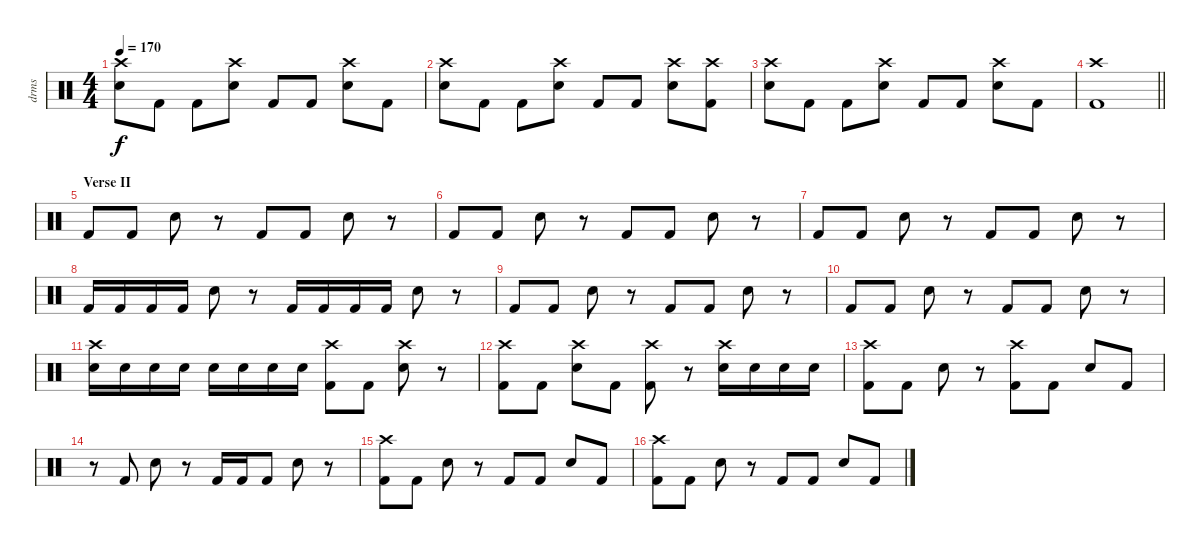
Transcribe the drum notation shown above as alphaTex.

\track ("drms" "drms") {instrument percussion}
\staff {score}
\articulation defaults
\ts (4 4)
\tempo 170
\clef neutral
\ks c
("Crash high (hit)" "Snare (hit) 2").8{dy f} "Kick (hit) 2".8 "Kick (hit) 2".8 ("Crash high (hit)" "Snare (hit) 2").8 "Kick (hit) 2".8 "Kick (hit) 2".8 ("Crash high (hit)" "Snare (hit) 2").8 "Kick (hit) 2".8 |
("Crash high (hit)" "Snare (hit) 2").8 "Kick (hit) 2".8 "Kick (hit) 2".8 ("Crash high (hit)" "Snare (hit) 2").8 "Kick (hit) 2".8 "Kick (hit) 2".8 ("Crash high (hit)" "Snare (hit) 2").8 ("Crash high (hit)" "Kick (hit) 2").8 |
("Crash high (hit)" "Snare (hit) 2").8 "Kick (hit) 2".8 "Kick (hit) 2".8 ("Crash high (hit)" "Snare (hit) 2").8 "Kick (hit) 2".8 "Kick (hit) 2".8 ("Crash high (hit)" "Snare (hit) 2").8 "Kick (hit) 2".8 |
\barLineRight lightlight
("Crash high (hit)" "Kick (hit) 2").1 |
\section ("" "Verse II")
"Kick (hit) 2".8 "Kick (hit) 2".8 "Snare (hit) 2".8 r.8 "Kick (hit) 2".8 "Kick (hit) 2".8 "Snare (hit) 2".8 r.8 |
"Kick (hit) 2".8 "Kick (hit) 2".8 "Snare (hit) 2".8 r.8 "Kick (hit) 2".8 "Kick (hit) 2".8 "Snare (hit) 2".8 r.8 |
"Kick (hit) 2".8 "Kick (hit) 2".8 "Snare (hit) 2".8 r.8 "Kick (hit) 2".8 "Kick (hit) 2".8 "Snare (hit) 2".8 r.8 |
"Kick (hit) 2".16 "Kick (hit) 2".16 "Kick (hit) 2".16 "Kick (hit) 2".16 "Snare (hit) 2".8 r.8 "Kick (hit) 2".16 "Kick (hit) 2".16 "Kick (hit) 2".16 "Kick (hit) 2".16 "Snare (hit) 2".8 r.8 |
"Kick (hit) 2".8 "Kick (hit) 2".8 "Snare (hit) 2".8 r.8 "Kick (hit) 2".8 "Kick (hit) 2".8 "Snare (hit) 2".8 r.8 |
"Kick (hit) 2".8 "Kick (hit) 2".8 "Snare (hit) 2".8 r.8 "Kick (hit) 2".8 "Kick (hit) 2".8 "Snare (hit) 2".8 r.8 |
("Crash high (hit)" "Snare (hit) 2").16 "Snare (hit) 2".16 "Snare (hit) 2".16 "Snare (hit) 2".16 "Snare (hit) 2".16 "Snare (hit) 2".16 "Snare (hit) 2".16 "Snare (hit) 2".16 ("Crash high (hit)" "Kick (hit) 2").8 "Kick (hit) 2".8 ("Crash high (hit)" "Snare (hit) 2").8 r.8 |
("Crash high (hit)" "Kick (hit) 2").8 "Kick (hit) 2".8 ("Crash high (hit)" "Snare (hit) 2").8 "Kick (hit) 2".8 ("Crash high (hit)" "Kick (hit) 2").8 r.8 ("Crash high (hit)" "Electric Snare (hit)").16 "Electric Snare (hit)".16 "Electric Snare (hit)".16 "Electric Snare (hit)".16 |
("Crash high (hit)" "Kick (hit) 2").8 "Kick (hit) 2".8 "Snare (hit) 2".8 r.8 ("Crash high (hit)" "Kick (hit) 2").8 "Kick (hit) 2".8 "Snare (hit) 2".8 "Kick (hit) 2".8 |
r.8 "Kick (hit) 2".8 "Snare (hit) 2".8 r.8 "Kick (hit) 2".16 "Kick (hit) 2".16 "Kick (hit) 2".8 "Snare (hit) 2".8 r.8 |
("Crash high (hit)" "Kick (hit) 2").8 "Kick (hit) 2".8 "Snare (hit) 2".8 r.8 "Kick (hit) 2".8 "Kick (hit) 2".8 "Snare (hit) 2".8 "Kick (hit) 2".8 |
("Crash high (hit)" "Kick (hit) 2").8 "Kick (hit) 2".8 "Snare (hit) 2".8 r.8 "Kick (hit) 2".8 "Kick (hit) 2".8 "Snare (hit) 2".8 "Kick (hit) 2".8
